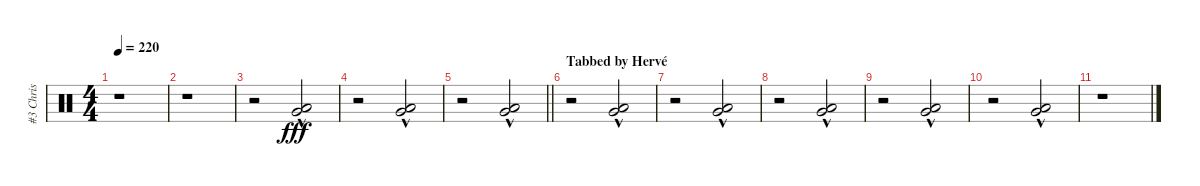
\track ("#3 Chris" "#3 Chris") {instrument percussion}
\staff {score}
\articulation defaults
\ts (4 4)
\tempo 220
\clef neutral
\ks c
r.1{dy fff} |
r.1 |
r.2 ("Very Low Tom (hit)"{hac} "Low Floor Tom (hit)"{hac}).2 |
r.2 ("Very Low Tom (hit)"{hac} "Low Floor Tom (hit)"{hac}).2 |
\barLineRight lightlight
r.2 ("Very Low Tom (hit)"{hac} "Low Floor Tom (hit)"{hac}).2 |
\section ("" "Tabbed by Hervé")
r.2 ("Very Low Tom (hit)"{hac} "Low Floor Tom (hit)"{hac}).2 |
r.2 ("Very Low Tom (hit)"{hac} "Low Floor Tom (hit)"{hac}).2 |
r.2 ("Very Low Tom (hit)"{hac} "Low Floor Tom (hit)"{hac}).2 |
r.2 ("Very Low Tom (hit)"{hac} "Low Floor Tom (hit)"{hac}).2 |
r.2 ("Very Low Tom (hit)"{hac} "Low Floor Tom (hit)"{hac}).2 |
r.1
